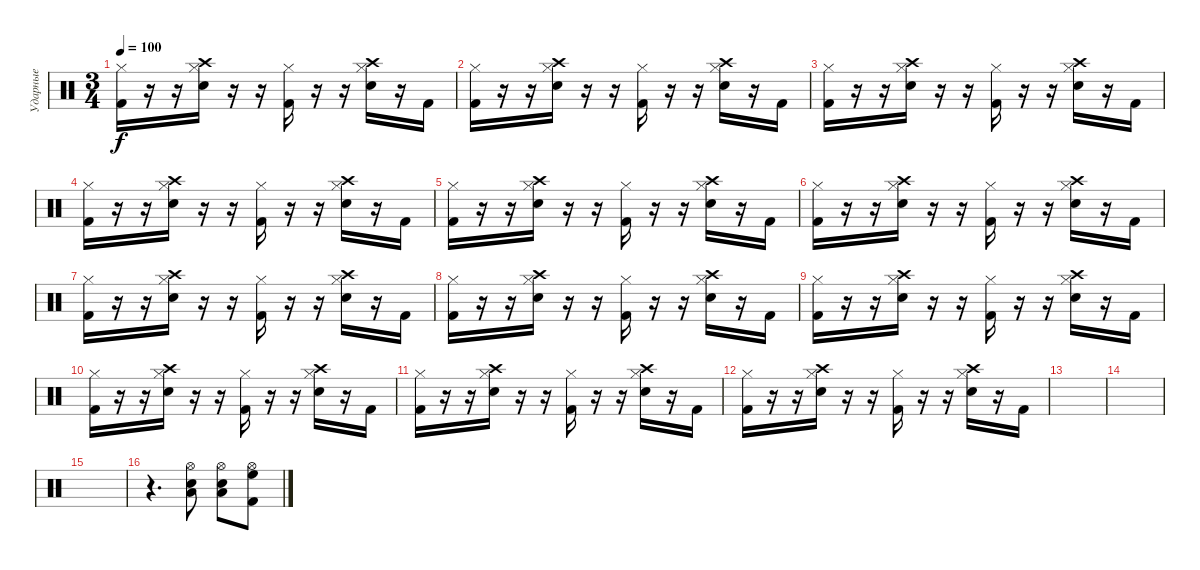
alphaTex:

\track ("Ударные" "Ударные") {instrument percussion}
\staff {score}
\articulation defaults
\ts (3 4)
\tempo 100
\clef neutral
\ks c
("Hi-Hat (closed)" "Kick (hit) 2").16{dy f} r.16 r.16 ("Crash high (hit)" "Hi-Hat (closed)" "Electric Snare (hit)").16 r.16 r.16 ("Hi-Hat (closed)" "Kick (hit) 2").16 r.16 r.16 ("Crash high (hit)" "Hi-Hat (closed)" "Electric Snare (hit)").16 r.16 "Kick (hit) 2".16 |
("Hi-Hat (closed)" "Kick (hit) 2").16 r.16 r.16 ("Crash high (hit)" "Hi-Hat (closed)" "Electric Snare (hit)").16 r.16 r.16 ("Hi-Hat (closed)" "Kick (hit) 2").16 r.16 r.16 ("Crash high (hit)" "Hi-Hat (closed)" "Electric Snare (hit)").16 r.16 "Kick (hit) 2".16 |
("Hi-Hat (closed)" "Kick (hit) 2").16 r.16 r.16 ("Crash high (hit)" "Hi-Hat (closed)" "Electric Snare (hit)").16 r.16 r.16 ("Hi-Hat (closed)" "Kick (hit) 2").16 r.16 r.16 ("Crash high (hit)" "Hi-Hat (closed)" "Electric Snare (hit)").16 r.16 "Kick (hit) 2".16 |
("Hi-Hat (closed)" "Kick (hit) 2").16 r.16 r.16 ("Crash high (hit)" "Hi-Hat (closed)" "Electric Snare (hit)").16 r.16 r.16 ("Hi-Hat (closed)" "Kick (hit) 2").16 r.16 r.16 ("Crash high (hit)" "Hi-Hat (closed)" "Electric Snare (hit)").16 r.16 "Kick (hit) 2".16 |
("Hi-Hat (closed)" "Kick (hit) 2").16 r.16 r.16 ("Crash high (hit)" "Hi-Hat (closed)" "Electric Snare (hit)").16 r.16 r.16 ("Hi-Hat (closed)" "Kick (hit) 2").16 r.16 r.16 ("Crash high (hit)" "Hi-Hat (closed)" "Electric Snare (hit)").16 r.16 "Kick (hit) 2".16 |
("Hi-Hat (closed)" "Kick (hit) 2").16 r.16 r.16 ("Crash high (hit)" "Hi-Hat (closed)" "Electric Snare (hit)").16 r.16 r.16 ("Hi-Hat (closed)" "Kick (hit) 2").16 r.16 r.16 ("Crash high (hit)" "Hi-Hat (closed)" "Electric Snare (hit)").16 r.16 "Kick (hit) 2".16 |
("Hi-Hat (closed)" "Kick (hit) 2").16 r.16 r.16 ("Crash high (hit)" "Hi-Hat (closed)" "Electric Snare (hit)").16 r.16 r.16 ("Hi-Hat (closed)" "Kick (hit) 2").16 r.16 r.16 ("Crash high (hit)" "Hi-Hat (closed)" "Electric Snare (hit)").16 r.16 "Kick (hit) 2".16 |
("Hi-Hat (closed)" "Kick (hit) 2").16 r.16 r.16 ("Crash high (hit)" "Hi-Hat (closed)" "Electric Snare (hit)").16 r.16 r.16 ("Hi-Hat (closed)" "Kick (hit) 2").16 r.16 r.16 ("Crash high (hit)" "Hi-Hat (closed)" "Electric Snare (hit)").16 r.16 "Kick (hit) 2".16 |
("Hi-Hat (closed)" "Kick (hit) 2").16 r.16 r.16 ("Crash high (hit)" "Hi-Hat (closed)" "Electric Snare (hit)").16 r.16 r.16 ("Hi-Hat (closed)" "Kick (hit) 2").16 r.16 r.16 ("Crash high (hit)" "Hi-Hat (closed)" "Electric Snare (hit)").16 r.16 "Kick (hit) 2".16 |
("Hi-Hat (closed)" "Kick (hit) 2").16 r.16 r.16 ("Crash high (hit)" "Hi-Hat (closed)" "Electric Snare (hit)").16 r.16 r.16 ("Hi-Hat (closed)" "Kick (hit) 2").16 r.16 r.16 ("Crash high (hit)" "Hi-Hat (closed)" "Electric Snare (hit)").16 r.16 "Kick (hit) 2".16 |
("Hi-Hat (closed)" "Kick (hit) 2").16 r.16 r.16 ("Crash high (hit)" "Hi-Hat (closed)" "Electric Snare (hit)").16 r.16 r.16 ("Hi-Hat (closed)" "Kick (hit) 2").16 r.16 r.16 ("Crash high (hit)" "Hi-Hat (closed)" "Electric Snare (hit)").16 r.16 "Kick (hit) 2".16 |
("Hi-Hat (closed)" "Kick (hit) 2").16 r.16 r.16 ("Crash high (hit)" "Hi-Hat (closed)" "Electric Snare (hit)").16 r.16 r.16 ("Hi-Hat (closed)" "Kick (hit) 2").16 r.16 r.16 ("Crash high (hit)" "Hi-Hat (closed)" "Electric Snare (hit)").16 r.16 "Kick (hit) 2".16 |
|
|
|
r.4{d} ("Hi-Hat (open)" "Snare (hit) 2" "Low Floor Tom (hit)").8 ("Hi-Hat (open)" "Snare (hit) 2" "Low Tom (hit)").8 ("Hi-Hat (open)" "Kick (hit) 2" "High Floor Tom (hit)").8
